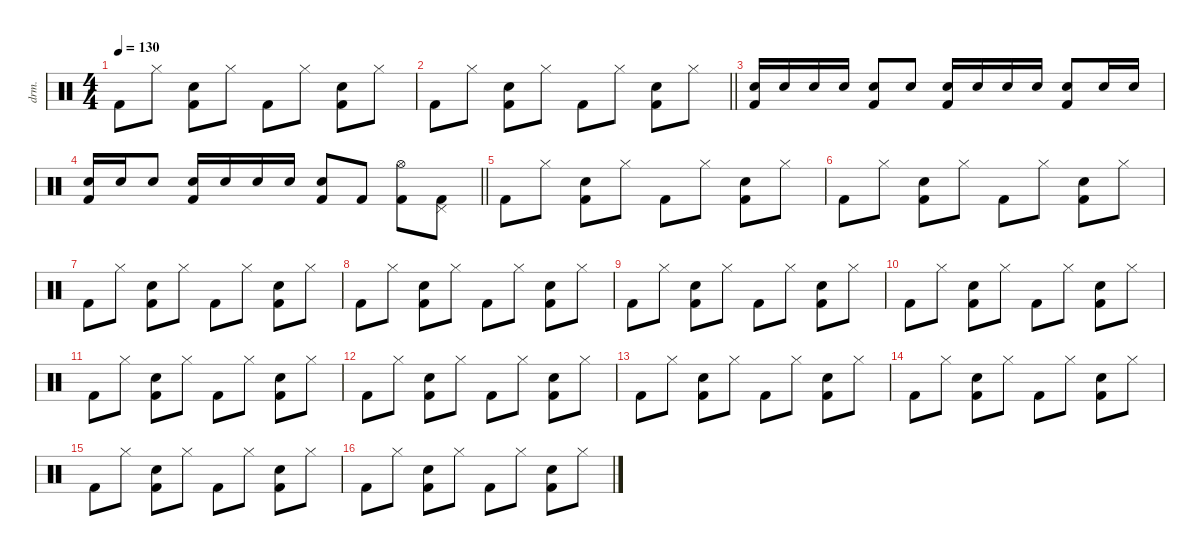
\defaultSystemsLayout 4
\hideDynamics
\bracketExtendMode nobrackets
\otherSystemsTrackNameOrientation horizontal
\track ("Percussion" "drm.") {defaultSystemsLayout 4 instrument percussion}
\staff {score}
\articulation defaults
\ts (4 4)
\tempo 130
\clef neutral
\ks c "Kick (hit) 2".8{dy f beam Down} "Hi-Hat (closed)".8{beam Down}
("Snare (hit) 2" "Kick (hit) 2").8{beam Down} "Hi-Hat (closed)".8{beam Down} "Kick (hit) 2".8{beam Down} "Hi-Hat (closed)".8{beam Down} ("Snare (hit) 2" "Kick (hit) 2").8{beam Down} "Hi-Hat (closed)".8{beam Down} |
\barLineRight lightlight "Kick (hit) 2".8{beam Down} "Hi-Hat (closed)".8{beam Down}
("Snare (hit) 2" "Kick (hit) 2").8{beam Down} "Hi-Hat (closed)".8{beam Down} "Kick (hit) 2".8{beam Down} "Hi-Hat (closed)".8{beam Down} ("Snare (hit) 2" "Kick (hit) 2").8{beam Down} "Hi-Hat (closed)".8{beam Down} |
("Snare (hit) 2" "Kick (hit) 2").16{beam Up} "Snare (hit) 2".16{beam Up} "Snare (hit) 2".16{beam Up} "Snare (hit) 2".16{beam Up} ("Snare (hit) 2" "Kick (hit) 2").8{beam Up} "Snare (hit) 2".8{beam Up} ("Snare (hit) 2" "Kick (hit) 2").16{beam Up} "Snare (hit) 2".16{beam Up} "Snare (hit) 2".16{beam Up} "Snare (hit) 2".16{beam Up} ("Snare (hit) 2" "Kick (hit) 2").8{beam Up} "Snare (hit) 2".16{beam Up} "Snare (hit) 2".16{beam Up} |
\barLineRight lightlight
("Snare (hit) 2" "Kick (hit) 2").16{beam Up} "Snare (hit) 2".16{beam Up} "Snare (hit) 2".8{beam Up} ("Snare (hit) 2" "Kick (hit) 2").16{beam Up} "Snare (hit) 2".16{beam Up} "Snare (hit) 2".16{beam Up} "Snare (hit) 2".16{beam Up} ("Snare (hit) 2" "Kick (hit) 2").8{beam Up} "Kick (hit) 2".8{beam Up} ("Hi-Hat (open)" "Kick (hit) 2").8{beam Down} ("Pedal Hi-Hat (hit)" "Kick (hit) 2").8{beam Down} |
"Kick (hit) 2".8{beam Down} "Hi-Hat (closed)".8{beam Down} ("Snare (hit) 2" "Kick (hit) 2").8{beam Down} "Hi-Hat (closed)".8{beam Down} "Kick (hit) 2".8{beam Down} "Hi-Hat (closed)".8{beam Down} ("Snare (hit) 2" "Kick (hit) 2").8{beam Down} "Hi-Hat (closed)".8{beam Down} |
"Kick (hit) 2".8{beam Down} "Hi-Hat (closed)".8{beam Down} ("Snare (hit) 2" "Kick (hit) 2").8{beam Down} "Hi-Hat (closed)".8{beam Down} "Kick (hit) 2".8{beam Down} "Hi-Hat (closed)".8{beam Down} ("Snare (hit) 2" "Kick (hit) 2").8{beam Down} "Hi-Hat (closed)".8{beam Down} |
"Kick (hit) 2".8{beam Down} "Hi-Hat (closed)".8{beam Down} ("Snare (hit) 2" "Kick (hit) 2").8{beam Down} "Hi-Hat (closed)".8{beam Down} "Kick (hit) 2".8{beam Down} "Hi-Hat (closed)".8{beam Down} ("Snare (hit) 2" "Kick (hit) 2").8{beam Down} "Hi-Hat (closed)".8{beam Down} |
"Kick (hit) 2".8{beam Down} "Hi-Hat (closed)".8{beam Down} ("Snare (hit) 2" "Kick (hit) 2").8{beam Down} "Hi-Hat (closed)".8{beam Down} "Kick (hit) 2".8{beam Down} "Hi-Hat (closed)".8{beam Down} ("Snare (hit) 2" "Kick (hit) 2").8{beam Down} "Hi-Hat (closed)".8{beam Down} |
"Kick (hit) 2".8{beam Down} "Hi-Hat (closed)".8{beam Down} ("Snare (hit) 2" "Kick (hit) 2").8{beam Down} "Hi-Hat (closed)".8{beam Down} "Kick (hit) 2".8{beam Down} "Hi-Hat (closed)".8{beam Down} ("Snare (hit) 2" "Kick (hit) 2").8{beam Down} "Hi-Hat (closed)".8{beam Down} |
"Kick (hit) 2".8{beam Down} "Hi-Hat (closed)".8{beam Down} ("Snare (hit) 2" "Kick (hit) 2").8{beam Down} "Hi-Hat (closed)".8{beam Down} "Kick (hit) 2".8{beam Down} "Hi-Hat (closed)".8{beam Down} ("Snare (hit) 2" "Kick (hit) 2").8{beam Down} "Hi-Hat (closed)".8{beam Down} |
"Kick (hit) 2".8{beam Down} "Hi-Hat (closed)".8{beam Down} ("Snare (hit) 2" "Kick (hit) 2").8{beam Down} "Hi-Hat (closed)".8{beam Down} "Kick (hit) 2".8{beam Down} "Hi-Hat (closed)".8{beam Down} ("Snare (hit) 2" "Kick (hit) 2").8{beam Down} "Hi-Hat (closed)".8{beam Down} |
"Kick (hit) 2".8{beam Down} "Hi-Hat (closed)".8{beam Down} ("Snare (hit) 2" "Kick (hit) 2").8{beam Down} "Hi-Hat (closed)".8{beam Down} "Kick (hit) 2".8{beam Down} "Hi-Hat (closed)".8{beam Down} ("Snare (hit) 2" "Kick (hit) 2").8{beam Down} "Hi-Hat (closed)".8{beam Down} |
"Kick (hit) 2".8{beam Down} "Hi-Hat (closed)".8{beam Down} ("Snare (hit) 2" "Kick (hit) 2").8{beam Down} "Hi-Hat (closed)".8{beam Down} "Kick (hit) 2".8{beam Down} "Hi-Hat (closed)".8{beam Down} ("Snare (hit) 2" "Kick (hit) 2").8{beam Down} "Hi-Hat (closed)".8{beam Down} |
"Kick (hit) 2".8{beam Down} "Hi-Hat (closed)".8{beam Down} ("Snare (hit) 2" "Kick (hit) 2").8{beam Down} "Hi-Hat (closed)".8{beam Down} "Kick (hit) 2".8{beam Down} "Hi-Hat (closed)".8{beam Down} ("Snare (hit) 2" "Kick (hit) 2").8{beam Down} "Hi-Hat (closed)".8{beam Down} |
"Kick (hit) 2".8{beam Down} "Hi-Hat (closed)".8{beam Down} ("Snare (hit) 2" "Kick (hit) 2").8{beam Down} "Hi-Hat (closed)".8{beam Down} "Kick (hit) 2".8{beam Down} "Hi-Hat (closed)".8{beam Down} ("Snare (hit) 2" "Kick (hit) 2").8{beam Down} "Hi-Hat (closed)".8{beam Down} |
"Kick (hit) 2".8{beam Down} "Hi-Hat (closed)".8{beam Down} ("Snare (hit) 2" "Kick (hit) 2").8{beam Down} "Hi-Hat (closed)".8{beam Down} "Kick (hit) 2".8{beam Down} "Hi-Hat (closed)".8{beam Down} ("Snare (hit) 2" "Kick (hit) 2").8{beam Down} "Hi-Hat (closed)".8{beam Down}
